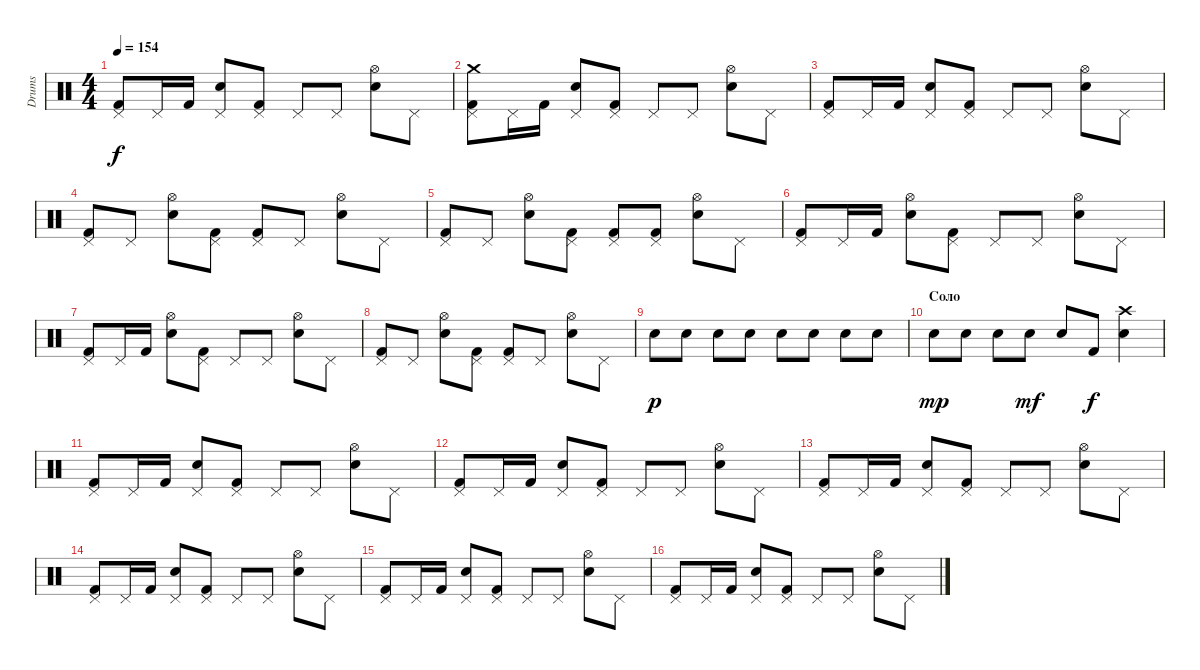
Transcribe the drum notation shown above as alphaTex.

\track ("Drums" "Drums") {instrument percussion}
\staff {score}
\articulation defaults
\ts (4 4)
\tempo 154
\clef neutral
\ks c
("Pedal Hi-Hat (hit)" "Kick (hit) 2").8{dy f} "Pedal Hi-Hat (hit)".16 "Kick (hit) 2".16 ("Pedal Hi-Hat (hit)" "Electric Snare (hit)").8 ("Pedal Hi-Hat (hit)" "Kick (hit) 2").8 "Pedal Hi-Hat (hit)".8 "Pedal Hi-Hat (hit)".8 ("Hi-Hat (open)" "Electric Snare (hit)").8 "Pedal Hi-Hat (hit)".8 |
("Crash medium (hit)" "Pedal Hi-Hat (hit)" "Kick (hit) 2").8 "Pedal Hi-Hat (hit)".16 "Kick (hit) 2".16 ("Pedal Hi-Hat (hit)" "Electric Snare (hit)").8 ("Pedal Hi-Hat (hit)" "Kick (hit) 2").8 "Pedal Hi-Hat (hit)".8 "Pedal Hi-Hat (hit)".8 ("Hi-Hat (open)" "Electric Snare (hit)").8 "Pedal Hi-Hat (hit)".8 |
("Pedal Hi-Hat (hit)" "Kick (hit) 2").8 "Pedal Hi-Hat (hit)".16 "Kick (hit) 2".16 ("Pedal Hi-Hat (hit)" "Electric Snare (hit)").8 ("Pedal Hi-Hat (hit)" "Kick (hit) 2").8 "Pedal Hi-Hat (hit)".8 "Pedal Hi-Hat (hit)".8 ("Hi-Hat (open)" "Electric Snare (hit)").8 "Pedal Hi-Hat (hit)".8 |
("Pedal Hi-Hat (hit)" "Kick (hit) 2").8 "Pedal Hi-Hat (hit)".8 ("Hi-Hat (open)" "Electric Snare (hit)").8 ("Pedal Hi-Hat (hit)" "Kick (hit) 2").8 ("Pedal Hi-Hat (hit)" "Kick (hit) 2").8 "Pedal Hi-Hat (hit)".8 ("Hi-Hat (open)" "Electric Snare (hit)").8 "Pedal Hi-Hat (hit)".8 |
("Pedal Hi-Hat (hit)" "Kick (hit) 2").8 "Pedal Hi-Hat (hit)".8 ("Hi-Hat (open)" "Electric Snare (hit)").8 ("Pedal Hi-Hat (hit)" "Kick (hit) 2").8 ("Pedal Hi-Hat (hit)" "Kick (hit) 2").8 ("Pedal Hi-Hat (hit)" "Kick (hit) 2").8 ("Hi-Hat (open)" "Electric Snare (hit)").8 "Pedal Hi-Hat (hit)".8 |
("Pedal Hi-Hat (hit)" "Kick (hit) 2").8 "Pedal Hi-Hat (hit)".16 "Kick (hit) 2".16 ("Hi-Hat (open)" "Electric Snare (hit)").8 ("Pedal Hi-Hat (hit)" "Kick (hit) 2").8 "Pedal Hi-Hat (hit)".8 "Pedal Hi-Hat (hit)".8 ("Hi-Hat (open)" "Electric Snare (hit)").8 "Pedal Hi-Hat (hit)".8 |
("Pedal Hi-Hat (hit)" "Kick (hit) 2").8 "Pedal Hi-Hat (hit)".16 "Kick (hit) 2".16 ("Hi-Hat (open)" "Electric Snare (hit)").8 ("Pedal Hi-Hat (hit)" "Kick (hit) 2").8 "Pedal Hi-Hat (hit)".8 "Pedal Hi-Hat (hit)".8 ("Hi-Hat (open)" "Electric Snare (hit)").8 "Pedal Hi-Hat (hit)".8 |
("Pedal Hi-Hat (hit)" "Kick (hit) 2").8 "Pedal Hi-Hat (hit)".8 ("Hi-Hat (open)" "Electric Snare (hit)").8 ("Pedal Hi-Hat (hit)" "Kick (hit) 2").8 ("Pedal Hi-Hat (hit)" "Kick (hit) 2").8 "Pedal Hi-Hat (hit)".8 ("Hi-Hat (open)" "Electric Snare (hit)").8 "Pedal Hi-Hat (hit)".8 |
"Electric Snare (hit)".8{dy p} "Electric Snare (hit)".8 "Electric Snare (hit)".8 "Electric Snare (hit)".8 "Electric Snare (hit)".8 "Electric Snare (hit)".8 "Electric Snare (hit)".8 "Electric Snare (hit)".8 |
\section ("" "Соло")
"Electric Snare (hit)".8{dy mp} "Electric Snare (hit)".8 "Electric Snare (hit)".8 "Electric Snare (hit)".8{dy mf} "Electric Snare (hit)".8 "Kick (hit) 2".8{dy f} ("Crash high (hit)" "Electric Snare (hit)").4 |
("Pedal Hi-Hat (hit)" "Kick (hit) 2").8 "Pedal Hi-Hat (hit)".16 "Kick (hit) 2".16 ("Pedal Hi-Hat (hit)" "Electric Snare (hit)").8 ("Pedal Hi-Hat (hit)" "Kick (hit) 2").8 "Pedal Hi-Hat (hit)".8 "Pedal Hi-Hat (hit)".8 ("Hi-Hat (open)" "Electric Snare (hit)").8 "Pedal Hi-Hat (hit)".8 |
("Pedal Hi-Hat (hit)" "Kick (hit) 2").8 "Pedal Hi-Hat (hit)".16 "Kick (hit) 2".16 ("Pedal Hi-Hat (hit)" "Electric Snare (hit)").8 ("Pedal Hi-Hat (hit)" "Kick (hit) 2").8 "Pedal Hi-Hat (hit)".8 "Pedal Hi-Hat (hit)".8 ("Hi-Hat (open)" "Electric Snare (hit)").8 "Pedal Hi-Hat (hit)".8 |
("Pedal Hi-Hat (hit)" "Kick (hit) 2").8 "Pedal Hi-Hat (hit)".16 "Kick (hit) 2".16 ("Pedal Hi-Hat (hit)" "Electric Snare (hit)").8 ("Pedal Hi-Hat (hit)" "Kick (hit) 2").8 "Pedal Hi-Hat (hit)".8 "Pedal Hi-Hat (hit)".8 ("Hi-Hat (open)" "Electric Snare (hit)").8 "Pedal Hi-Hat (hit)".8 |
("Pedal Hi-Hat (hit)" "Kick (hit) 2").8 "Pedal Hi-Hat (hit)".16 "Kick (hit) 2".16 ("Pedal Hi-Hat (hit)" "Electric Snare (hit)").8 ("Pedal Hi-Hat (hit)" "Kick (hit) 2").8 "Pedal Hi-Hat (hit)".8 "Pedal Hi-Hat (hit)".8 ("Hi-Hat (open)" "Electric Snare (hit)").8 "Pedal Hi-Hat (hit)".8 |
("Pedal Hi-Hat (hit)" "Kick (hit) 2").8 "Pedal Hi-Hat (hit)".16 "Kick (hit) 2".16 ("Pedal Hi-Hat (hit)" "Electric Snare (hit)").8 ("Pedal Hi-Hat (hit)" "Kick (hit) 2").8 "Pedal Hi-Hat (hit)".8 "Pedal Hi-Hat (hit)".8 ("Hi-Hat (open)" "Electric Snare (hit)").8 "Pedal Hi-Hat (hit)".8 |
("Pedal Hi-Hat (hit)" "Kick (hit) 2").8 "Pedal Hi-Hat (hit)".16 "Kick (hit) 2".16 ("Pedal Hi-Hat (hit)" "Electric Snare (hit)").8 ("Pedal Hi-Hat (hit)" "Kick (hit) 2").8 "Pedal Hi-Hat (hit)".8 "Pedal Hi-Hat (hit)".8 ("Hi-Hat (open)" "Electric Snare (hit)").8 "Pedal Hi-Hat (hit)".8
